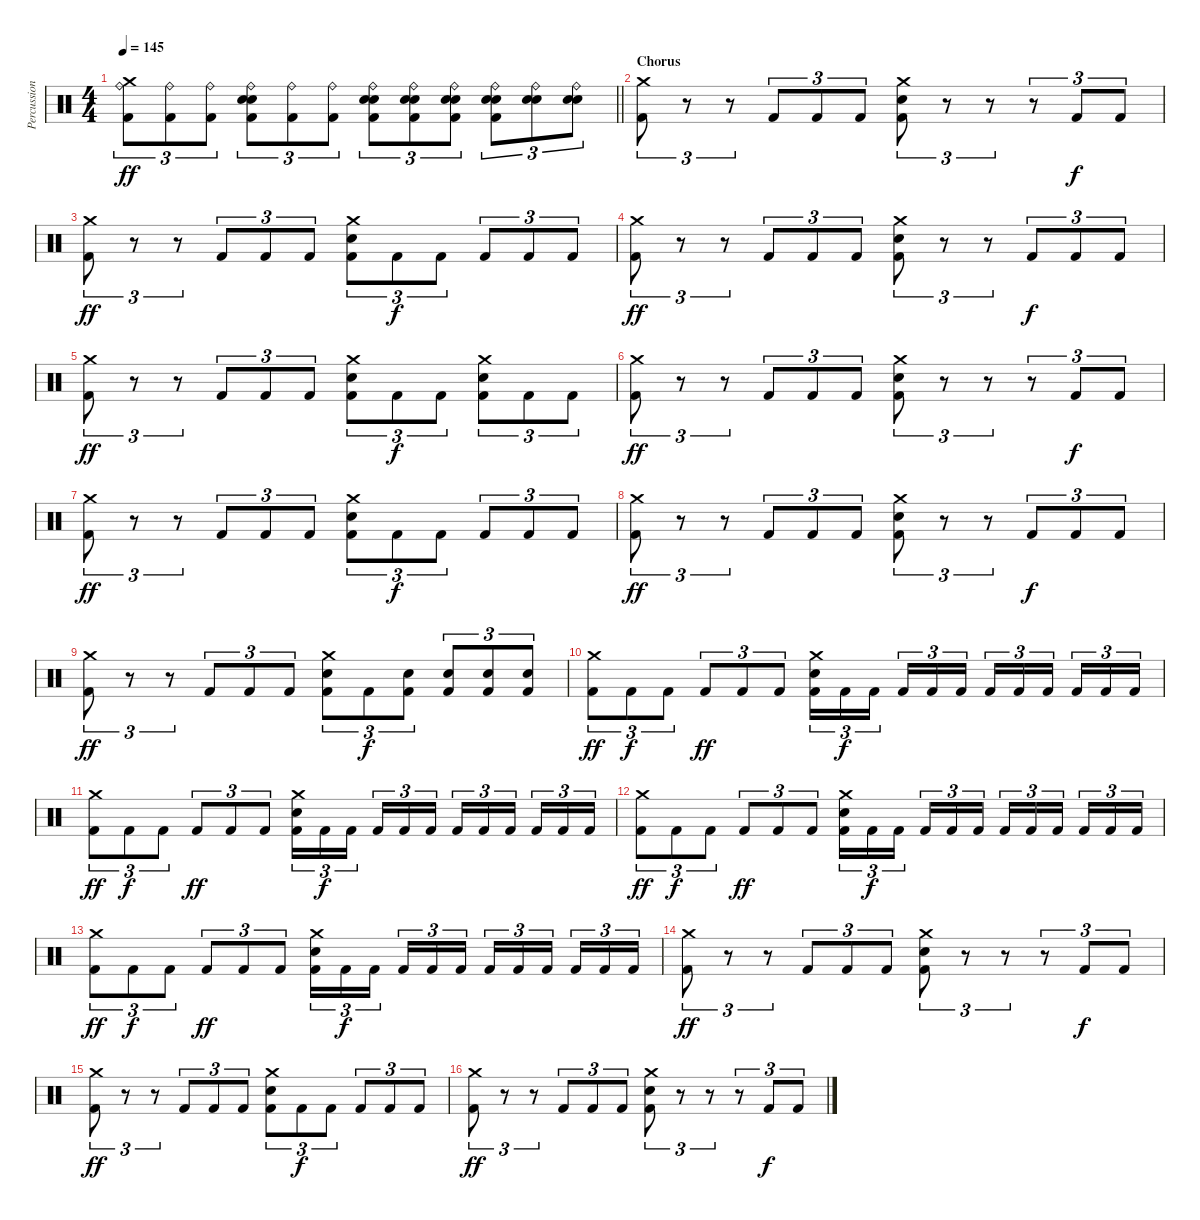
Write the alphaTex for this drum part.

\track ("Percussion" "Percussion") {instrument percussion}
\staff {score}
\articulation defaults
\ts (4 4)
\tempo 145
\clef neutral
\barLineRight lightlight
\ks c
("Ride (bell)" "Crash medium (hit)" "Kick (hit) 2").8{tu (3 2) dy ff} ("Ride (bell)" "Kick (hit) 2").8{tu (3 2)} ("Ride (bell)" "Kick (hit) 2").8{tu (3 2)} ("Ride (bell)" "Snare (hit) 2" "Electric Snare (hit)" "Kick (hit) 2").8{tu (3 2)} ("Ride (bell)" "Kick (hit) 2").8{tu (3 2)} ("Ride (bell)" "Kick (hit) 2").8{tu (3 2)} ("Ride (bell)" "Electric Snare (hit)" "Electric Snare (hit)" "Kick (hit) 2").8{tu (3 2)} ("Ride (bell)" "Electric Snare (hit)" "Electric Snare (hit)" "Kick (hit) 2").8{tu (3 2)} ("Ride (bell)" "Electric Snare (hit)" "Electric Snare (hit)" "Kick (hit) 2").8{tu (3 2)} ("Ride (bell)" "Electric Snare (hit)" "Electric Snare (hit)" "Kick (hit) 2").8{tu (3 2)} ("Ride (bell)" "Electric Snare (hit)" "Electric Snare (hit)").8{tu (3 2)} ("Ride (bell)" "Electric Snare (hit)" "Electric Snare (hit)").8{tu (3 2)} |
\section ("" "Chorus")
("Crash medium (hit)" "Kick (hit) 2").8{tu (3 2)} r.8{tu (3 2)} r.8{tu (3 2)} "Kick (hit) 2".8{tu (3 2)} "Kick (hit) 2".8{tu (3 2)} "Kick (hit) 2".8{tu (3 2)} ("Electric Snare (hit)" "Crash medium (hit)" "Kick (hit) 2").8{tu (3 2)} r.8{tu (3 2)} r.8{tu (3 2)} r.8{tu (3 2)} "Kick (hit) 2".8{tu (3 2) dy f} "Kick (hit) 2".8{tu (3 2)} |
("Crash medium (hit)" "Kick (hit) 2").8{tu (3 2) dy ff} r.8{tu (3 2)} r.8{tu (3 2)} "Kick (hit) 2".8{tu (3 2)} "Kick (hit) 2".8{tu (3 2)} "Kick (hit) 2".8{tu (3 2)} ("Electric Snare (hit)" "Crash medium (hit)" "Kick (hit) 2").8{tu (3 2)} "Kick (hit) 2".8{tu (3 2) dy f} "Kick (hit) 2".8{tu (3 2)} "Kick (hit) 2".8{tu (3 2)} "Kick (hit) 2".8{tu (3 2)} "Kick (hit) 2".8{tu (3 2)} |
("Crash medium (hit)" "Kick (hit) 2").8{tu (3 2) dy ff} r.8{tu (3 2)} r.8{tu (3 2)} "Kick (hit) 2".8{tu (3 2)} "Kick (hit) 2".8{tu (3 2)} "Kick (hit) 2".8{tu (3 2)} ("Electric Snare (hit)" "Crash medium (hit)" "Kick (hit) 2").8{tu (3 2)} r.8{tu (3 2)} r.8{tu (3 2)} "Kick (hit) 2".8{tu (3 2) dy f} "Kick (hit) 2".8{tu (3 2)} "Kick (hit) 2".8{tu (3 2)} |
("Crash medium (hit)" "Kick (hit) 2").8{tu (3 2) dy ff} r.8{tu (3 2)} r.8{tu (3 2)} "Kick (hit) 2".8{tu (3 2)} "Kick (hit) 2".8{tu (3 2)} "Kick (hit) 2".8{tu (3 2)} ("Electric Snare (hit)" "Crash medium (hit)" "Kick (hit) 2").8{tu (3 2)} "Kick (hit) 2".8{tu (3 2) dy f} "Kick (hit) 2".8{tu (3 2)} ("Electric Snare (hit)" "Crash medium (hit)" "Kick (hit) 2").8{tu (3 2)} "Kick (hit) 2".8{tu (3 2)} "Kick (hit) 2".8{tu (3 2)} |
("Crash medium (hit)" "Kick (hit) 2").8{tu (3 2) dy ff} r.8{tu (3 2)} r.8{tu (3 2)} "Kick (hit) 2".8{tu (3 2)} "Kick (hit) 2".8{tu (3 2)} "Kick (hit) 2".8{tu (3 2)} ("Electric Snare (hit)" "Crash medium (hit)" "Kick (hit) 2").8{tu (3 2)} r.8{tu (3 2)} r.8{tu (3 2)} r.8{tu (3 2)} "Kick (hit) 2".8{tu (3 2) dy f} "Kick (hit) 2".8{tu (3 2)} |
("Crash medium (hit)" "Kick (hit) 2").8{tu (3 2) dy ff} r.8{tu (3 2)} r.8{tu (3 2)} "Kick (hit) 2".8{tu (3 2)} "Kick (hit) 2".8{tu (3 2)} "Kick (hit) 2".8{tu (3 2)} ("Electric Snare (hit)" "Crash medium (hit)" "Kick (hit) 2").8{tu (3 2)} "Kick (hit) 2".8{tu (3 2) dy f} "Kick (hit) 2".8{tu (3 2)} "Kick (hit) 2".8{tu (3 2)} "Kick (hit) 2".8{tu (3 2)} "Kick (hit) 2".8{tu (3 2)} |
("Crash medium (hit)" "Kick (hit) 2").8{tu (3 2) dy ff} r.8{tu (3 2)} r.8{tu (3 2)} "Kick (hit) 2".8{tu (3 2)} "Kick (hit) 2".8{tu (3 2)} "Kick (hit) 2".8{tu (3 2)} ("Electric Snare (hit)" "Crash medium (hit)" "Kick (hit) 2").8{tu (3 2)} r.8{tu (3 2)} r.8{tu (3 2)} "Kick (hit) 2".8{tu (3 2) dy f} "Kick (hit) 2".8{tu (3 2)} "Kick (hit) 2".8{tu (3 2)} |
("Crash medium (hit)" "Kick (hit) 2").8{tu (3 2) dy ff} r.8{tu (3 2)} r.8{tu (3 2)} "Kick (hit) 2".8{tu (3 2)} "Kick (hit) 2".8{tu (3 2)} "Kick (hit) 2".8{tu (3 2)} ("Electric Snare (hit)" "Crash medium (hit)" "Kick (hit) 2").8{tu (3 2)} "Kick (hit) 2".8{tu (3 2) dy f} ("Electric Snare (hit)" "Kick (hit) 2").8{tu (3 2)} ("Electric Snare (hit)" "Kick (hit) 2").8{tu (3 2)} ("Electric Snare (hit)" "Kick (hit) 2").8{tu (3 2)} ("Electric Snare (hit)" "Kick (hit) 2").8{tu (3 2)} |
("Crash medium (hit)" "Kick (hit) 2").8{tu (3 2) dy ff} "Kick (hit) 2".8{tu (3 2) dy f} "Kick (hit) 2".8{tu (3 2)} "Kick (hit) 2".8{tu (3 2) dy ff} "Kick (hit) 2".8{tu (3 2)} "Kick (hit) 2".8{tu (3 2)} ("Crash medium (hit)" "Electric Snare (hit)" "Kick (hit) 2").16{tu (3 2)} "Kick (hit) 2".16{tu (3 2) dy f} "Kick (hit) 2".16{tu (3 2) beam splitsecondary} "Kick (hit) 2".16{tu (3 2)} "Kick (hit) 2".16{tu (3 2)} "Kick (hit) 2".16{tu (3 2)} "Kick (hit) 2".16{tu (3 2)} "Kick (hit) 2".16{tu (3 2)} "Kick (hit) 2".16{tu (3 2) beam splitsecondary} "Kick (hit) 2".16{tu (3 2)} "Kick (hit) 2".16{tu (3 2)} "Kick (hit) 2".16{tu (3 2)} |
("Crash medium (hit)" "Kick (hit) 2").8{tu (3 2) dy ff} "Kick (hit) 2".8{tu (3 2) dy f} "Kick (hit) 2".8{tu (3 2)} "Kick (hit) 2".8{tu (3 2) dy ff} "Kick (hit) 2".8{tu (3 2)} "Kick (hit) 2".8{tu (3 2)} ("Crash medium (hit)" "Electric Snare (hit)" "Kick (hit) 2").16{tu (3 2)} "Kick (hit) 2".16{tu (3 2) dy f} "Kick (hit) 2".16{tu (3 2) beam splitsecondary} "Kick (hit) 2".16{tu (3 2)} "Kick (hit) 2".16{tu (3 2)} "Kick (hit) 2".16{tu (3 2)} "Kick (hit) 2".16{tu (3 2)} "Kick (hit) 2".16{tu (3 2)} "Kick (hit) 2".16{tu (3 2) beam splitsecondary} "Kick (hit) 2".16{tu (3 2)} "Kick (hit) 2".16{tu (3 2)} "Kick (hit) 2".16{tu (3 2)} |
("Crash medium (hit)" "Kick (hit) 2").8{tu (3 2) dy ff} "Kick (hit) 2".8{tu (3 2) dy f} "Kick (hit) 2".8{tu (3 2)} "Kick (hit) 2".8{tu (3 2) dy ff} "Kick (hit) 2".8{tu (3 2)} "Kick (hit) 2".8{tu (3 2)} ("Crash medium (hit)" "Electric Snare (hit)" "Kick (hit) 2").16{tu (3 2)} "Kick (hit) 2".16{tu (3 2) dy f} "Kick (hit) 2".16{tu (3 2) beam splitsecondary} "Kick (hit) 2".16{tu (3 2)} "Kick (hit) 2".16{tu (3 2)} "Kick (hit) 2".16{tu (3 2)} "Kick (hit) 2".16{tu (3 2)} "Kick (hit) 2".16{tu (3 2)} "Kick (hit) 2".16{tu (3 2) beam splitsecondary} "Kick (hit) 2".16{tu (3 2)} "Kick (hit) 2".16{tu (3 2)} "Kick (hit) 2".16{tu (3 2)} |
("Crash medium (hit)" "Kick (hit) 2").8{tu (3 2) dy ff} "Kick (hit) 2".8{tu (3 2) dy f} "Kick (hit) 2".8{tu (3 2)} "Kick (hit) 2".8{tu (3 2) dy ff} "Kick (hit) 2".8{tu (3 2)} "Kick (hit) 2".8{tu (3 2)} ("Crash medium (hit)" "Electric Snare (hit)" "Kick (hit) 2").16{tu (3 2)} "Kick (hit) 2".16{tu (3 2) dy f} "Kick (hit) 2".16{tu (3 2) beam splitsecondary} "Kick (hit) 2".16{tu (3 2)} "Kick (hit) 2".16{tu (3 2)} "Kick (hit) 2".16{tu (3 2)} "Kick (hit) 2".16{tu (3 2)} "Kick (hit) 2".16{tu (3 2)} "Kick (hit) 2".16{tu (3 2) beam splitsecondary} "Kick (hit) 2".16{tu (3 2)} "Kick (hit) 2".16{tu (3 2)} "Kick (hit) 2".16{tu (3 2)} |
("Crash medium (hit)" "Kick (hit) 2").8{tu (3 2) dy ff} r.8{tu (3 2)} r.8{tu (3 2)} "Kick (hit) 2".8{tu (3 2)} "Kick (hit) 2".8{tu (3 2)} "Kick (hit) 2".8{tu (3 2)} ("Electric Snare (hit)" "Crash medium (hit)" "Kick (hit) 2").8{tu (3 2)} r.8{tu (3 2)} r.8{tu (3 2)} r.8{tu (3 2)} "Kick (hit) 2".8{tu (3 2) dy f} "Kick (hit) 2".8{tu (3 2)} |
("Crash medium (hit)" "Kick (hit) 2").8{tu (3 2) dy ff} r.8{tu (3 2)} r.8{tu (3 2)} "Kick (hit) 2".8{tu (3 2)} "Kick (hit) 2".8{tu (3 2)} "Kick (hit) 2".8{tu (3 2)} ("Electric Snare (hit)" "Crash medium (hit)" "Kick (hit) 2").8{tu (3 2)} "Kick (hit) 2".8{tu (3 2) dy f} "Kick (hit) 2".8{tu (3 2)} "Kick (hit) 2".8{tu (3 2)} "Kick (hit) 2".8{tu (3 2)} "Kick (hit) 2".8{tu (3 2)} |
("Crash medium (hit)" "Kick (hit) 2").8{tu (3 2) dy ff} r.8{tu (3 2)} r.8{tu (3 2)} "Kick (hit) 2".8{tu (3 2)} "Kick (hit) 2".8{tu (3 2)} "Kick (hit) 2".8{tu (3 2)} ("Electric Snare (hit)" "Crash medium (hit)" "Kick (hit) 2").8{tu (3 2)} r.8{tu (3 2)} r.8{tu (3 2)} r.8{tu (3 2)} "Kick (hit) 2".8{tu (3 2) dy f} "Kick (hit) 2".8{tu (3 2)}
